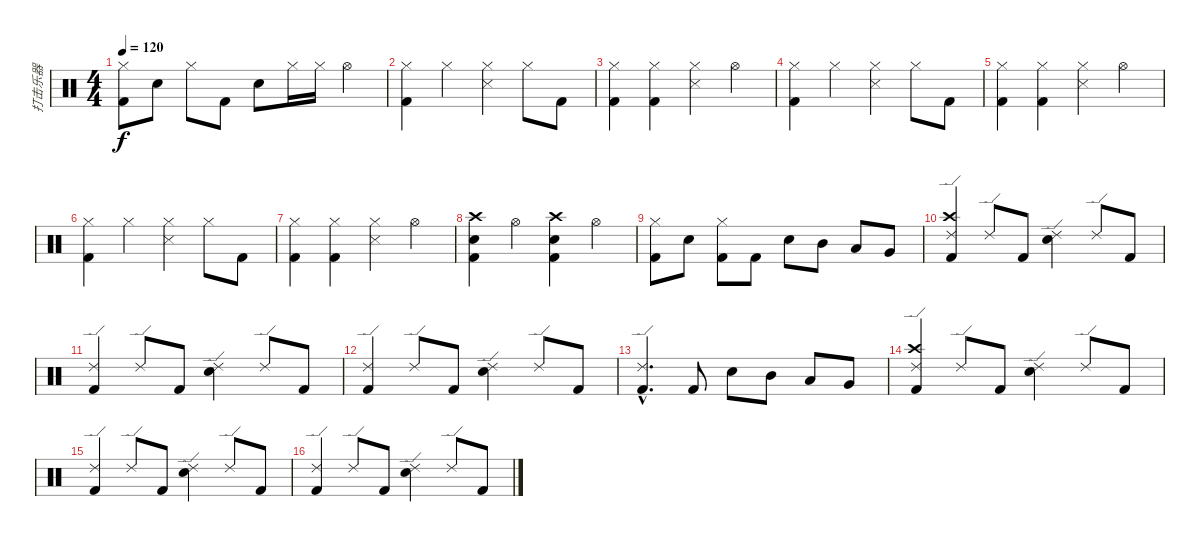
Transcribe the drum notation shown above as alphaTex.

\track ("打击乐器" "打击乐器") {instrument percussion}
\staff {score}
\articulation defaults
\ts (4 4)
\tempo 120
\clef neutral
\ks c
("Hi-Hat (closed)" "Kick (hit) 2").8{dy f} "Electric Snare (hit)".8 "Hi-Hat (closed)".8 "Kick (hit) 2".8 "Electric Snare (hit)".8 "Hi-Hat (closed)".16 "Hi-Hat (closed)".16 "Hi-Hat (open)".4 |
("Hi-Hat (closed)" "Kick (hit) 2").4 "Hi-Hat (closed)".4 ("Hi-Hat (closed)" "Snare (side stick) 3").4 "Hi-Hat (closed)".8 "Kick (hit) 2".8 |
("Hi-Hat (closed)" "Kick (hit) 2").4 ("Hi-Hat (closed)" "Kick (hit) 2").4 ("Hi-Hat (closed)" "Snare (side stick) 3").4 "Hi-Hat (open)".4 |
("Hi-Hat (closed)" "Kick (hit) 2").4 "Hi-Hat (closed)".4 ("Hi-Hat (closed)" "Snare (side stick) 3").4 "Hi-Hat (closed)".8 "Kick (hit) 2".8 |
("Hi-Hat (closed)" "Kick (hit) 2").4 ("Hi-Hat (closed)" "Kick (hit) 2").4 ("Hi-Hat (closed)" "Snare (side stick) 3").4 "Hi-Hat (open)".4 |
("Hi-Hat (closed)" "Kick (hit) 2").4 "Hi-Hat (closed)".4 ("Hi-Hat (closed)" "Snare (side stick) 3").4 "Hi-Hat (closed)".8 "Kick (hit) 2".8 |
("Hi-Hat (closed)" "Kick (hit) 2").4 ("Hi-Hat (closed)" "Kick (hit) 2").4 ("Hi-Hat (closed)" "Snare (side stick) 3").4 "Hi-Hat (open)".4 |
("Crash high (hit)" "Electric Snare (hit)" "Kick (hit) 2").4 "Hi-Hat (open)".4 ("Crash high (hit)" "Electric Snare (hit)" "Kick (hit) 2").4 "Hi-Hat (open)".4 |
("Hi-Hat (closed)" "Kick (hit) 2").8 "Electric Snare (hit)".8 ("Hi-Hat (closed)" "Kick (hit) 2").8 "Kick (hit) 2".8 "Electric Snare (hit)".8 "Mid Tom (hit)".8 "Low Tom (hit)".8 "Very Low Tom (hit)".8 |
("Ride (edge) 2" "Crash high (hit)" "Kick (hit) 2").4 "Ride (edge) 2".8 "Kick (hit) 2".8 ("Ride (edge) 2" "Electric Snare (hit)").4 "Ride (edge) 2".8 "Kick (hit) 2".8 |
("Ride (edge) 2" "Kick (hit) 2").4 "Ride (edge) 2".8 "Kick (hit) 2".8 ("Ride (edge) 2" "Electric Snare (hit)").4 "Ride (edge) 2".8 "Kick (hit) 2".8 |
("Ride (edge) 2" "Kick (hit) 2").4 "Ride (edge) 2".8 "Kick (hit) 2".8 ("Ride (edge) 2" "Electric Snare (hit)").4 "Ride (edge) 2".8 "Kick (hit) 2".8 |
("Ride (edge) 2"{hac} "Kick (hit) 2"{hac}).4{d} "Kick (hit) 2".8 "Electric Snare (hit)".8 "Mid Tom (hit)".8 "Low Tom (hit)".8 "Very Low Tom (hit)".8 |
("Ride (edge) 2" "Crash high (hit)" "Kick (hit) 2").4 "Ride (edge) 2".8 "Kick (hit) 2".8 ("Ride (edge) 2" "Electric Snare (hit)").4 "Ride (edge) 2".8 "Kick (hit) 2".8 |
("Ride (edge) 2" "Kick (hit) 2").4 "Ride (edge) 2".8 "Kick (hit) 2".8 ("Ride (edge) 2" "Electric Snare (hit)").4 "Ride (edge) 2".8 "Kick (hit) 2".8 |
("Ride (edge) 2" "Kick (hit) 2").4 "Ride (edge) 2".8 "Kick (hit) 2".8 ("Ride (edge) 2" "Electric Snare (hit)").4 "Ride (edge) 2".8 "Kick (hit) 2".8
